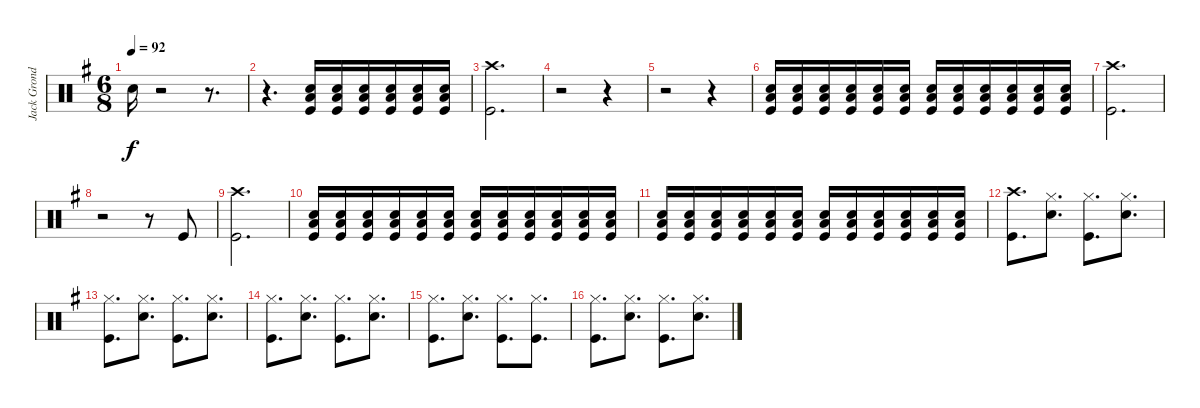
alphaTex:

\track ("Jack Grondin Drums" "Jack Grond") {instrument percussion}
\staff {score}
\articulation defaults
\ts (6 8)
\tempo 92
\clef neutral
\ks g "Snare (hit) 2".16{dy f}
r.2 r.8{d} |
r.4{d} ("Snare (hit) 2" "Low Floor Tom (hit)" "Kick (hit)").16 ("Snare (hit) 2" "Low Floor Tom (hit)" "Kick (hit)").16 ("Snare (hit) 2" "Low Floor Tom (hit)" "Kick (hit)").16 ("Snare (hit) 2" "Low Floor Tom (hit)" "Kick (hit)").16 ("Snare (hit) 2" "Low Floor Tom (hit)" "Kick (hit)").16 ("Snare (hit) 2" "Low Floor Tom (hit)" "Kick (hit)").16 |
("Crash high (hit)" "Kick (hit)").2{d} |
r.2 r.4 |
r.2 r.4 |
("Snare (hit) 2" "Low Floor Tom (hit)" "Kick (hit)").16 ("Snare (hit) 2" "Low Floor Tom (hit)" "Kick (hit)").16 ("Snare (hit) 2" "Low Floor Tom (hit)" "Kick (hit)").16 ("Snare (hit) 2" "Low Floor Tom (hit)" "Kick (hit)").16 ("Snare (hit) 2" "Low Floor Tom (hit)" "Kick (hit)").16 ("Snare (hit) 2" "Low Floor Tom (hit)" "Kick (hit)").16 ("Snare (hit) 2" "Low Floor Tom (hit)" "Kick (hit)").16 ("Snare (hit) 2" "Low Floor Tom (hit)" "Kick (hit)").16 ("Snare (hit) 2" "Low Floor Tom (hit)" "Kick (hit)").16 ("Snare (hit) 2" "Low Floor Tom (hit)" "Kick (hit)").16 ("Snare (hit) 2" "Low Floor Tom (hit)" "Kick (hit)").16 ("Snare (hit) 2" "Low Floor Tom (hit)" "Kick (hit)").16 |
("Crash high (hit)" "Kick (hit)").2{d} |
r.2 r.8 "Kick (hit)".8 |
("Crash high (hit)" "Kick (hit)").2{d} |
("Snare (hit) 2" "Low Floor Tom (hit)" "Kick (hit)").16 ("Snare (hit) 2" "Low Floor Tom (hit)" "Kick (hit)").16 ("Snare (hit) 2" "Low Floor Tom (hit)" "Kick (hit)").16 ("Snare (hit) 2" "Low Floor Tom (hit)" "Kick (hit)").16 ("Snare (hit) 2" "Low Floor Tom (hit)" "Kick (hit)").16 ("Snare (hit) 2" "Low Floor Tom (hit)" "Kick (hit)").16 ("Snare (hit) 2" "Low Floor Tom (hit)" "Kick (hit)").16 ("Snare (hit) 2" "Low Floor Tom (hit)" "Kick (hit)").16 ("Snare (hit) 2" "Low Floor Tom (hit)" "Kick (hit)").16 ("Snare (hit) 2" "Low Floor Tom (hit)" "Kick (hit)").16 ("Snare (hit) 2" "Low Floor Tom (hit)" "Kick (hit)").16 ("Snare (hit) 2" "Low Floor Tom (hit)" "Kick (hit)").16 |
("Snare (hit) 2" "Low Floor Tom (hit)" "Kick (hit)").16 ("Snare (hit) 2" "Low Floor Tom (hit)" "Kick (hit)").16 ("Snare (hit) 2" "Low Floor Tom (hit)" "Kick (hit)").16 ("Snare (hit) 2" "Low Floor Tom (hit)" "Kick (hit)").16 ("Snare (hit) 2" "Low Floor Tom (hit)" "Kick (hit)").16 ("Snare (hit) 2" "Low Floor Tom (hit)" "Kick (hit)").16 ("Snare (hit) 2" "Low Floor Tom (hit)" "Kick (hit)").16 ("Snare (hit) 2" "Low Floor Tom (hit)" "Kick (hit)").16 ("Snare (hit) 2" "Low Floor Tom (hit)" "Kick (hit)").16 ("Snare (hit) 2" "Low Floor Tom (hit)" "Kick (hit)").16 ("Snare (hit) 2" "Low Floor Tom (hit)" "Kick (hit)").16 ("Snare (hit) 2" "Low Floor Tom (hit)" "Kick (hit)").16 |
("Crash high (hit)" "Kick (hit)").8{d} ("Hi-Hat (closed)" "Snare (hit) 2").8{d} ("Hi-Hat (closed)" "Kick (hit)").8{d} ("Hi-Hat (closed)" "Snare (hit) 2").8{d} |
("Hi-Hat (closed)" "Kick (hit)").8{d} ("Hi-Hat (closed)" "Snare (hit) 2").8{d} ("Hi-Hat (closed)" "Kick (hit)").8{d} ("Hi-Hat (closed)" "Snare (hit) 2").8{d} |
("Hi-Hat (closed)" "Kick (hit)").8{d} ("Hi-Hat (closed)" "Snare (hit) 2").8{d} ("Hi-Hat (closed)" "Kick (hit)").8{d} ("Hi-Hat (closed)" "Snare (hit) 2").8{d} |
("Hi-Hat (closed)" "Kick (hit)").8{d} ("Hi-Hat (closed)" "Snare (hit) 2").8{d} ("Hi-Hat (closed)" "Kick (hit)").8{d} ("Hi-Hat (closed)" "Kick (hit)").8{d} |
("Hi-Hat (closed)" "Kick (hit)").8{d} ("Hi-Hat (closed)" "Snare (hit) 2").8{d} ("Hi-Hat (closed)" "Kick (hit)").8{d} ("Hi-Hat (closed)" "Snare (hit) 2").8{d}
